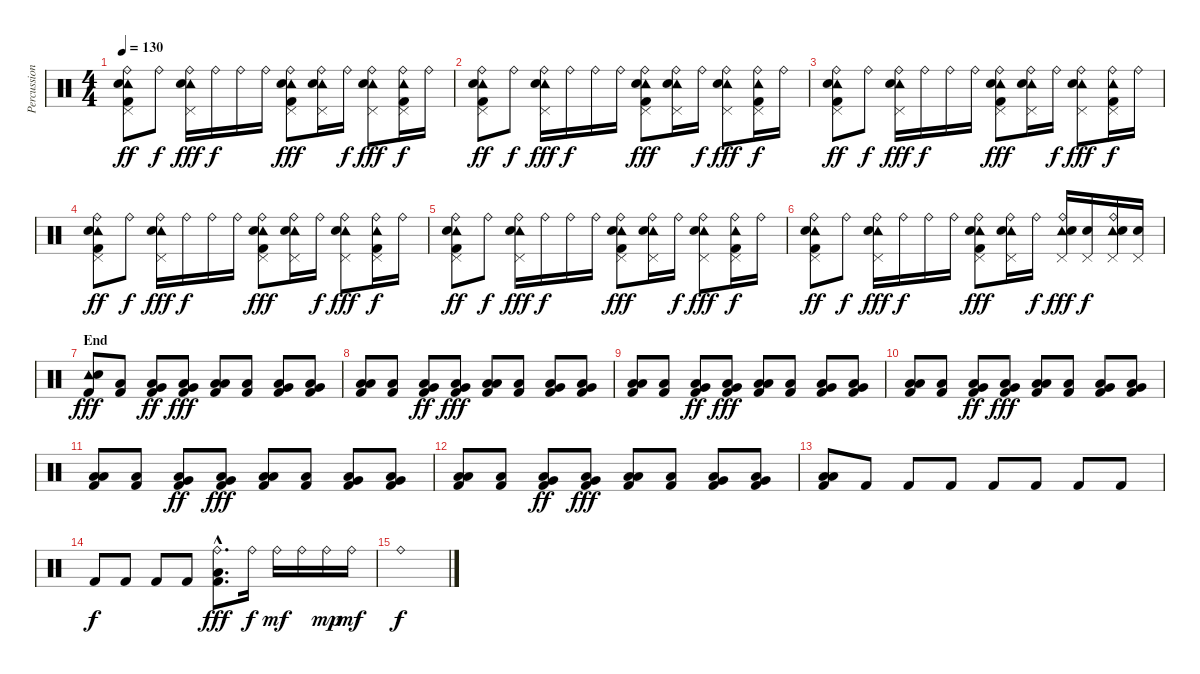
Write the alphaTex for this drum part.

\track ("Percussion" "Percussion") {instrument percussion}
\staff {score}
\articulation defaults
\ts (4 4)
\tempo 130
\clef neutral
\ks c
("Ride (bell)" "Pedal Hi-Hat (hit)" "Tambourine (hit)" "Electric Snare (hit)" "Kick (hit) 2").8{dy ff} "Ride (bell)".8{dy f} ("Ride (bell)" "Pedal Hi-Hat (hit)" "Tambourine (hit)" "Electric Snare (hit)").16{dy fff} "Ride (bell)".16{dy f} "Ride (bell)".16 "Ride (bell)".16 ("Ride (bell)" "Pedal Hi-Hat (hit)" "Tambourine (hit)" "Electric Snare (hit)" "Kick (hit) 2").8{dy fff} ("Ride (bell)" "Pedal Hi-Hat (hit)" "Tambourine (hit)" "Electric Snare (hit)").16 "Ride (bell)".16{dy f} ("Ride (bell)" "Pedal Hi-Hat (hit)" "Tambourine (hit)" "Electric Snare (hit)").8{dy fff} ("Ride (bell)" "Pedal Hi-Hat (hit)" "Tambourine (hit)" "Kick (hit) 2").16{dy f} "Ride (bell)".16 |
("Ride (bell)" "Pedal Hi-Hat (hit)" "Tambourine (hit)" "Electric Snare (hit)" "Kick (hit) 2").8{dy ff} "Ride (bell)".8{dy f} ("Ride (bell)" "Pedal Hi-Hat (hit)" "Tambourine (hit)" "Electric Snare (hit)").16{dy fff} "Ride (bell)".16{dy f} "Ride (bell)".16 "Ride (bell)".16 ("Ride (bell)" "Pedal Hi-Hat (hit)" "Tambourine (hit)" "Electric Snare (hit)" "Kick (hit) 2").8{dy fff} ("Ride (bell)" "Pedal Hi-Hat (hit)" "Tambourine (hit)" "Electric Snare (hit)").16 "Ride (bell)".16{dy f} ("Ride (bell)" "Pedal Hi-Hat (hit)" "Tambourine (hit)" "Electric Snare (hit)").8{dy fff} ("Ride (bell)" "Pedal Hi-Hat (hit)" "Tambourine (hit)" "Kick (hit) 2").16{dy f} "Ride (bell)".16 |
("Ride (bell)" "Pedal Hi-Hat (hit)" "Tambourine (hit)" "Electric Snare (hit)" "Kick (hit) 2").8{dy ff} "Ride (bell)".8{dy f} ("Ride (bell)" "Pedal Hi-Hat (hit)" "Tambourine (hit)" "Electric Snare (hit)").16{dy fff} "Ride (bell)".16{dy f} "Ride (bell)".16 "Ride (bell)".16 ("Ride (bell)" "Pedal Hi-Hat (hit)" "Tambourine (hit)" "Electric Snare (hit)" "Kick (hit) 2").8{dy fff} ("Ride (bell)" "Pedal Hi-Hat (hit)" "Tambourine (hit)" "Electric Snare (hit)").16 "Ride (bell)".16{dy f} ("Ride (bell)" "Pedal Hi-Hat (hit)" "Tambourine (hit)" "Electric Snare (hit)").8{dy fff} ("Ride (bell)" "Pedal Hi-Hat (hit)" "Tambourine (hit)" "Kick (hit) 2").16{dy f} "Ride (bell)".16 |
("Ride (bell)" "Pedal Hi-Hat (hit)" "Tambourine (hit)" "Electric Snare (hit)" "Kick (hit) 2").8{dy ff} "Ride (bell)".8{dy f} ("Ride (bell)" "Pedal Hi-Hat (hit)" "Tambourine (hit)" "Electric Snare (hit)").16{dy fff} "Ride (bell)".16{dy f} "Ride (bell)".16 "Ride (bell)".16 ("Ride (bell)" "Pedal Hi-Hat (hit)" "Tambourine (hit)" "Electric Snare (hit)" "Kick (hit) 2").8{dy fff} ("Ride (bell)" "Pedal Hi-Hat (hit)" "Tambourine (hit)" "Electric Snare (hit)").16 "Ride (bell)".16{dy f} ("Ride (bell)" "Pedal Hi-Hat (hit)" "Tambourine (hit)" "Electric Snare (hit)").8{dy fff} ("Ride (bell)" "Pedal Hi-Hat (hit)" "Tambourine (hit)" "Kick (hit) 2").16{dy f} "Ride (bell)".16 |
("Ride (bell)" "Pedal Hi-Hat (hit)" "Tambourine (hit)" "Electric Snare (hit)" "Kick (hit) 2").8{dy ff} "Ride (bell)".8{dy f} ("Ride (bell)" "Pedal Hi-Hat (hit)" "Tambourine (hit)" "Electric Snare (hit)").16{dy fff} "Ride (bell)".16{dy f} "Ride (bell)".16 "Ride (bell)".16 ("Ride (bell)" "Pedal Hi-Hat (hit)" "Tambourine (hit)" "Electric Snare (hit)" "Kick (hit) 2").8{dy fff} ("Ride (bell)" "Pedal Hi-Hat (hit)" "Tambourine (hit)" "Electric Snare (hit)").16 "Ride (bell)".16{dy f} ("Ride (bell)" "Pedal Hi-Hat (hit)" "Tambourine (hit)" "Electric Snare (hit)").8{dy fff} ("Ride (bell)" "Pedal Hi-Hat (hit)" "Tambourine (hit)" "Kick (hit) 2").16{dy f} "Ride (bell)".16 |
("Ride (bell)" "Pedal Hi-Hat (hit)" "Tambourine (hit)" "Electric Snare (hit)" "Kick (hit) 2").8{dy ff} "Ride (bell)".8{dy f} ("Ride (bell)" "Pedal Hi-Hat (hit)" "Tambourine (hit)" "Electric Snare (hit)").16{dy fff} "Ride (bell)".16{dy f} "Ride (bell)".16 "Ride (bell)".16 ("Ride (bell)" "Pedal Hi-Hat (hit)" "Tambourine (hit)" "Electric Snare (hit)" "Kick (hit) 2").8{dy fff} ("Ride (bell)" "Pedal Hi-Hat (hit)" "Tambourine (hit)" "Electric Snare (hit)").16 "Ride (bell)".16{dy f} ("Ride (bell)" "Pedal Hi-Hat (hit)" "Tambourine (hit)" "Electric Snare (hit)").16{dy fff} ("Pedal Hi-Hat (hit)" "Electric Snare (hit)").16{dy f} ("Ride (bell)" "Pedal Hi-Hat (hit)" "Tambourine (hit)" "Electric Snare (hit)").16 ("Pedal Hi-Hat (hit)" "Electric Snare (hit)").16 |
\section ("" "End")
("Tambourine (hit)" "Electric Snare (hit)" "Kick (hit) 2").8{dy fff} ("Low Tom (hit)" "Kick (hit) 2").8 ("Low Tom (hit)" "Very Low Tom (hit)" "Kick (hit) 2").8{dy ff} ("Low Tom (hit)" "Very Low Tom (hit)" "Kick (hit) 2").8{dy fff} ("Low Tom (hit)" "Low Floor Tom (hit)" "Kick (hit) 2").8 ("Low Tom (hit)" "Kick (hit) 2").8 ("Low Tom (hit)" "Very Low Tom (hit)" "Kick (hit) 2").8 ("Low Tom (hit)" "Very Low Tom (hit)" "Kick (hit) 2").8 |
("Low Tom (hit)" "Low Floor Tom (hit)" "Kick (hit) 2").8 ("Low Tom (hit)" "Kick (hit) 2").8 ("Low Tom (hit)" "Very Low Tom (hit)" "Kick (hit) 2").8{dy ff} ("Low Tom (hit)" "Very Low Tom (hit)" "Kick (hit) 2").8{dy fff} ("Low Tom (hit)" "Low Floor Tom (hit)" "Kick (hit) 2").8 ("Low Tom (hit)" "Kick (hit) 2").8 ("Low Tom (hit)" "Very Low Tom (hit)" "Kick (hit) 2").8 ("Low Tom (hit)" "Very Low Tom (hit)" "Kick (hit) 2").8 |
("Low Tom (hit)" "Low Floor Tom (hit)" "Kick (hit) 2").8 ("Low Tom (hit)" "Kick (hit) 2").8 ("Low Tom (hit)" "Very Low Tom (hit)" "Kick (hit) 2").8{dy ff} ("Low Tom (hit)" "Very Low Tom (hit)" "Kick (hit) 2").8{dy fff} ("Low Tom (hit)" "Low Floor Tom (hit)" "Kick (hit) 2").8 ("Low Tom (hit)" "Kick (hit) 2").8 ("Low Tom (hit)" "Very Low Tom (hit)" "Kick (hit) 2").8 ("Low Tom (hit)" "Very Low Tom (hit)" "Kick (hit) 2").8 |
("Low Tom (hit)" "Low Floor Tom (hit)" "Kick (hit) 2").8 ("Low Tom (hit)" "Kick (hit) 2").8 ("Low Tom (hit)" "Very Low Tom (hit)" "Kick (hit) 2").8{dy ff} ("Low Tom (hit)" "Very Low Tom (hit)" "Kick (hit) 2").8{dy fff} ("Low Tom (hit)" "Low Floor Tom (hit)" "Kick (hit) 2").8 ("Low Tom (hit)" "Kick (hit) 2").8 ("Low Tom (hit)" "Very Low Tom (hit)" "Kick (hit) 2").8 ("Low Tom (hit)" "Very Low Tom (hit)" "Kick (hit) 2").8 |
("Low Tom (hit)" "Low Floor Tom (hit)" "Kick (hit) 2").8 ("Low Tom (hit)" "Kick (hit) 2").8 ("Low Tom (hit)" "Very Low Tom (hit)" "Kick (hit) 2").8{dy ff} ("Low Tom (hit)" "Very Low Tom (hit)" "Kick (hit) 2").8{dy fff} ("Low Tom (hit)" "Low Floor Tom (hit)" "Kick (hit) 2").8 ("Low Tom (hit)" "Kick (hit) 2").8 ("Low Tom (hit)" "Very Low Tom (hit)" "Kick (hit) 2").8 ("Low Tom (hit)" "Very Low Tom (hit)" "Kick (hit) 2").8 |
("Low Tom (hit)" "Low Floor Tom (hit)" "Kick (hit) 2").8 ("Low Tom (hit)" "Kick (hit) 2").8 ("Low Tom (hit)" "Very Low Tom (hit)" "Kick (hit) 2").8{dy ff} ("Low Tom (hit)" "Very Low Tom (hit)" "Kick (hit) 2").8{dy fff} ("Low Tom (hit)" "Low Floor Tom (hit)" "Kick (hit) 2").8 ("Low Tom (hit)" "Kick (hit) 2").8 ("Low Tom (hit)" "Very Low Tom (hit)" "Kick (hit) 2").8 ("Low Tom (hit)" "Very Low Tom (hit)" "Kick (hit) 2").8 |
("Low Tom (hit)" "Low Floor Tom (hit)" "Kick (hit) 2").8 "Kick (hit) 2".8 "Kick (hit) 2".8 "Kick (hit) 2".8 "Kick (hit) 2".8 "Kick (hit) 2".8 "Kick (hit) 2".8 "Kick (hit) 2".8 |
"Kick (hit) 2".8{dy f} "Kick (hit) 2".8 "Kick (hit) 2".8 "Kick (hit) 2".8 ("Ride (bell)"{hac} "Low Tom (hit)"{hac} "Kick (hit) 2"{hac}).8{d dy fff} "Ride (bell)".16{dy f} "Ride (bell)".16{dy mf} "Ride (bell)".16 "Ride (bell)".16{dy mp} "Ride (bell)".16{dy mf} |
"Ride (bell)".1{dy f}
